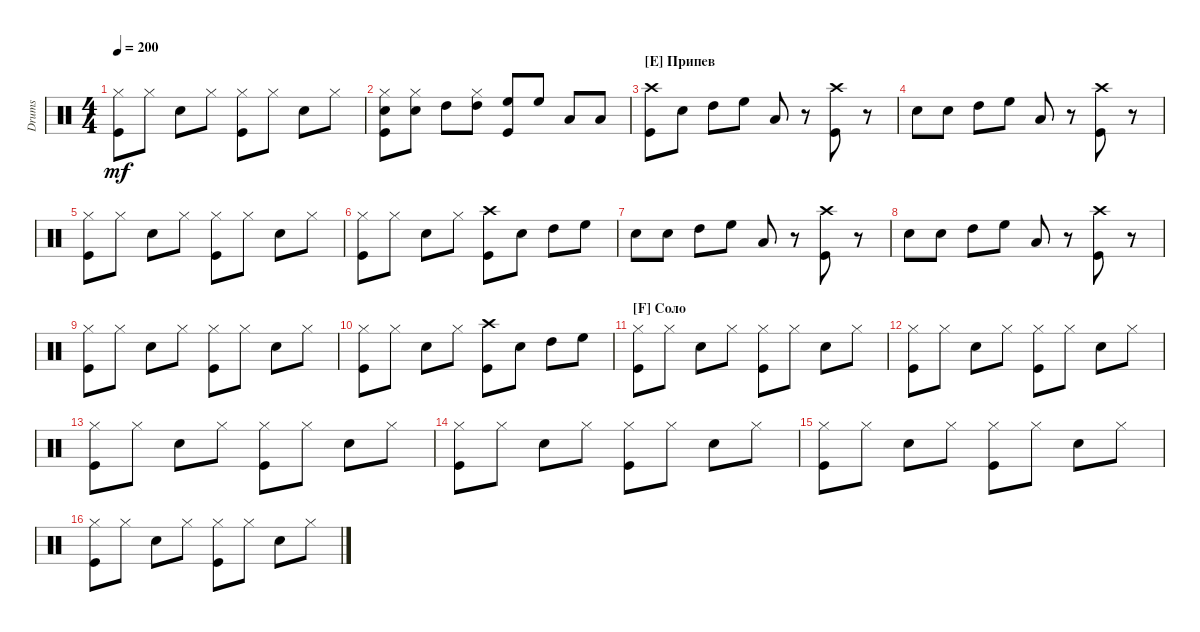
\track ("Drumkit" "Drums") {instrument percussion}
\staff {score}
\articulation defaults
\ts (4 4)
\tempo 200
\clef neutral
\ks c
("Kick (hit)" "Hi-Hat (closed)").8{dy mf} "Hi-Hat (closed)".8 "Snare (hit) 2".8 "Hi-Hat (closed)".8 ("Kick (hit)" "Hi-Hat (closed)").8 "Hi-Hat (closed)".8 "Snare (hit) 2".8 "Hi-Hat (closed)".8 |
("Kick (hit)" "Hi-Hat (closed)" "Snare (hit) 2").8 ("Hi-Hat (closed)" "Snare (hit) 2").8 "High Tom (hit)".8 ("Hi-Hat (closed)" "High Tom (hit)").8 ("Kick (hit)" "High Floor Tom (hit)").8 "High Floor Tom (hit)".8 "Low Tom (hit)".8 "Low Tom (hit)".8 |
\section ("E" "Припев")
("Crash high (hit)" "Kick (hit)").8 "Snare (hit) 2".8 "High Tom (hit)".8 "High Floor Tom (hit)".8 "Low Tom (hit)".8 r.8 ("Crash high (hit)" "Kick (hit)").8 r.8 |
"Snare (hit) 2".8 "Snare (hit) 2".8 "High Tom (hit)".8 "High Floor Tom (hit)".8 "Low Tom (hit)".8 r.8 ("Crash high (hit)" "Kick (hit)").8 r.8 |
("Kick (hit)" "Hi-Hat (closed)").8 "Hi-Hat (closed)".8 "Snare (hit) 2".8 "Hi-Hat (closed)".8 ("Kick (hit)" "Hi-Hat (closed)").8 "Hi-Hat (closed)".8 "Snare (hit) 2".8 "Hi-Hat (closed)".8 |
("Kick (hit)" "Hi-Hat (closed)").8 "Hi-Hat (closed)".8 "Snare (hit) 2".8 "Hi-Hat (closed)".8 ("Kick (hit)" "Crash high (hit)").8 "Snare (hit) 2".8 "High Tom (hit)".8 "High Floor Tom (hit)".8 |
"Snare (hit) 2".8 "Snare (hit) 2".8 "High Tom (hit)".8 "High Floor Tom (hit)".8 "Low Tom (hit)".8 r.8 ("Crash high (hit)" "Kick (hit)").8 r.8 |
"Snare (hit) 2".8 "Snare (hit) 2".8 "High Tom (hit)".8 "High Floor Tom (hit)".8 "Low Tom (hit)".8 r.8 ("Crash high (hit)" "Kick (hit)").8 r.8 |
("Kick (hit)" "Hi-Hat (closed)").8 "Hi-Hat (closed)".8 "Snare (hit) 2".8 "Hi-Hat (closed)".8 ("Kick (hit)" "Hi-Hat (closed)").8 "Hi-Hat (closed)".8 "Snare (hit) 2".8 "Hi-Hat (closed)".8 |
("Kick (hit)" "Hi-Hat (closed)").8 "Hi-Hat (closed)".8 "Snare (hit) 2".8 "Hi-Hat (closed)".8 ("Kick (hit)" "Crash high (hit)").8 "Snare (hit) 2".8 "High Tom (hit)".8 "High Floor Tom (hit)".8 |
\section ("F" "Соло")
("Kick (hit)" "Hi-Hat (closed)").8 "Hi-Hat (closed)".8 "Snare (hit) 2".8 "Hi-Hat (closed)".8 ("Kick (hit)" "Hi-Hat (closed)").8 "Hi-Hat (closed)".8 "Snare (hit) 2".8 "Hi-Hat (closed)".8 |
("Kick (hit)" "Hi-Hat (closed)").8 "Hi-Hat (closed)".8 "Snare (hit) 2".8 "Hi-Hat (closed)".8 ("Kick (hit)" "Hi-Hat (closed)").8 "Hi-Hat (closed)".8 "Snare (hit) 2".8 "Hi-Hat (closed)".8 |
("Kick (hit)" "Hi-Hat (closed)").8 "Hi-Hat (closed)".8 "Snare (hit) 2".8 "Hi-Hat (closed)".8 ("Kick (hit)" "Hi-Hat (closed)").8 "Hi-Hat (closed)".8 "Snare (hit) 2".8 "Hi-Hat (closed)".8 |
("Kick (hit)" "Hi-Hat (closed)").8 "Hi-Hat (closed)".8 "Snare (hit) 2".8 "Hi-Hat (closed)".8 ("Kick (hit)" "Hi-Hat (closed)").8 "Hi-Hat (closed)".8 "Snare (hit) 2".8 "Hi-Hat (closed)".8 |
("Kick (hit)" "Hi-Hat (closed)").8 "Hi-Hat (closed)".8 "Snare (hit) 2".8 "Hi-Hat (closed)".8 ("Kick (hit)" "Hi-Hat (closed)").8 "Hi-Hat (closed)".8 "Snare (hit) 2".8 "Hi-Hat (closed)".8 |
("Kick (hit)" "Hi-Hat (closed)").8 "Hi-Hat (closed)".8 "Snare (hit) 2".8 "Hi-Hat (closed)".8 ("Kick (hit)" "Hi-Hat (closed)").8 "Hi-Hat (closed)".8 "Snare (hit) 2".8 "Hi-Hat (closed)".8
